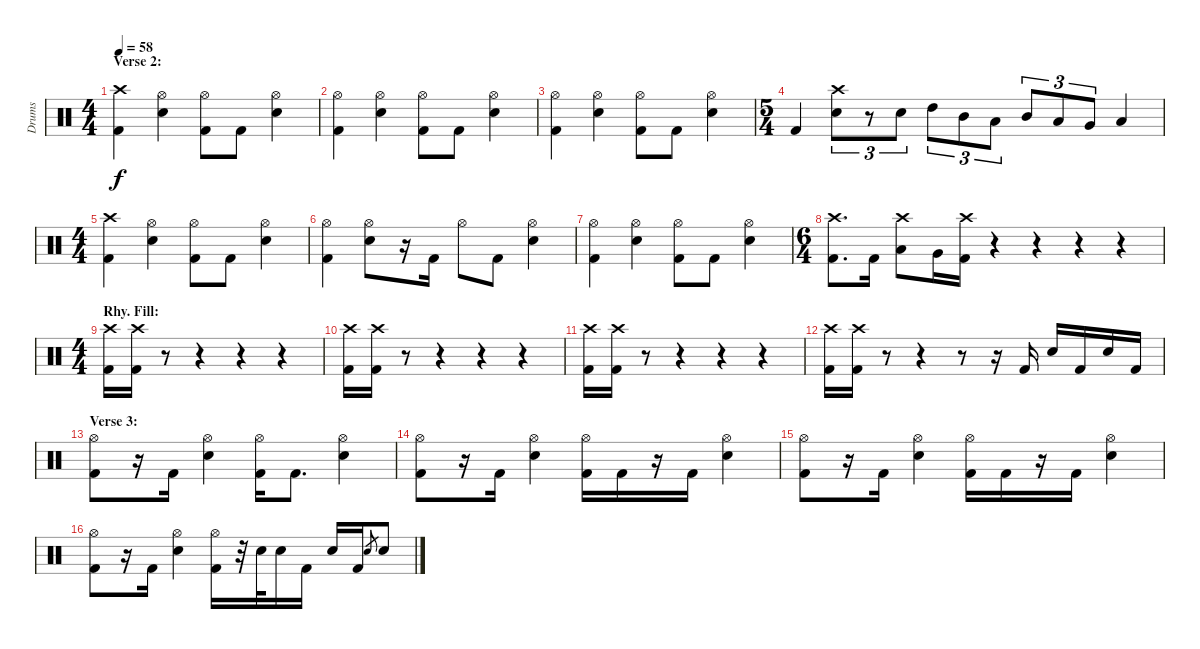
\track ("Drums" "Drums") {instrument percussion}
\staff {score}
\articulation defaults
\ts (4 4)
\section ("" "Verse 2:")
\tempo 58
\clef neutral
\ks c
("Crash high (hit)" "Kick (hit) 2").4{dy f} ("Hi-Hat (open)" "Snare (hit) 2").4 ("Hi-Hat (open)" "Kick (hit) 2").8 "Kick (hit) 2".8 ("Hi-Hat (open)" "Snare (hit) 2").4 |
("Hi-Hat (open)" "Kick (hit) 2").4 ("Hi-Hat (open)" "Snare (hit) 2").4 ("Hi-Hat (open)" "Kick (hit) 2").8 "Kick (hit) 2".8 ("Hi-Hat (open)" "Snare (hit) 2").4 |
("Hi-Hat (open)" "Kick (hit) 2").4 ("Hi-Hat (open)" "Snare (hit) 2").4 ("Hi-Hat (open)" "Kick (hit) 2").8 "Kick (hit) 2".8 ("Hi-Hat (open)" "Snare (hit) 2").4 |
\ts (5 4)
"Kick (hit) 2".4 ("Crash high (hit)" "Snare (hit) 2").8{tu (3 2)} r.8{tu (3 2)} "Snare (hit) 2".8{tu (3 2)} "High Tom (hit)".8{tu (3 2)} "Mid Tom (hit)".8{tu (3 2)} "Low Tom (hit)".8{tu (3 2)} "Mid Tom (hit)".8{tu (3 2)} "Low Tom (hit)".8{tu (3 2)} "Very Low Tom (hit)".8{tu (3 2)} "Low Floor Tom (hit)".4 |
\ts (4 4)
("Crash high (hit)" "Kick (hit) 2").4 ("Hi-Hat (open)" "Snare (hit) 2").4 ("Hi-Hat (open)" "Kick (hit) 2").8 "Kick (hit) 2".8 ("Hi-Hat (open)" "Snare (hit) 2").4 |
("Hi-Hat (open)" "Kick (hit) 2").4 ("Hi-Hat (open)" "Snare (hit) 2").8 r.16 "Kick (hit) 2".16 "Hi-Hat (open)".8 "Kick (hit) 2".8 ("Hi-Hat (open)" "Snare (hit) 2").4 |
("Hi-Hat (open)" "Kick (hit) 2").4 ("Hi-Hat (open)" "Snare (hit) 2").4 ("Hi-Hat (open)" "Kick (hit) 2").8 "Kick (hit) 2".8 ("Hi-Hat (open)" "Snare (hit) 2").4 |
\ts (6 4)
("Crash high (hit)" "Kick (hit) 2").8{d} "Kick (hit) 2".16 ("Crash high (hit)" "Low Tom (hit)").8 "Very Low Tom (hit)".16 ("Crash high (hit)" "Kick (hit) 2").16 r.4 r.4 r.4 r.4 |
\ts (4 4)
\section ("" "Rhy. Fill:")
("Crash high (hit)" "Kick (hit) 2").16 ("Crash high (hit)" "Kick (hit) 2").16 r.8 r.4 r.4 r.4 |
("Crash high (hit)" "Kick (hit) 2").16 ("Crash high (hit)" "Kick (hit) 2").16 r.8 r.4 r.4 r.4 |
("Crash high (hit)" "Kick (hit) 2").16 ("Crash high (hit)" "Kick (hit) 2").16 r.8 r.4 r.4 r.4 |
("Crash high (hit)" "Kick (hit) 2").16 ("Crash high (hit)" "Kick (hit) 2").16 r.8 r.4 r.8 r.16 "Kick (hit) 2".16 "Snare (hit) 2".16 "Kick (hit) 2".16 "Snare (hit) 2".16 "Kick (hit) 2".16 |
\section ("" "Verse 3:")
("Hi-Hat (open)" "Kick (hit) 2").8 r.16 "Kick (hit) 2".16 ("Hi-Hat (open)" "Snare (hit) 2").4 ("Hi-Hat (open)" "Kick (hit) 2").16 "Kick (hit) 2".8{d} ("Hi-Hat (open)" "Snare (hit) 2").4 |
("Hi-Hat (open)" "Kick (hit) 2").8 r.16 "Kick (hit) 2".16 ("Hi-Hat (open)" "Snare (hit) 2").4 ("Hi-Hat (open)" "Kick (hit) 2").16 "Kick (hit) 2".16 r.16 "Kick (hit) 2".16 ("Hi-Hat (open)" "Snare (hit) 2").4 |
("Hi-Hat (open)" "Kick (hit) 2").8 r.16 "Kick (hit) 2".16 ("Hi-Hat (open)" "Snare (hit) 2").4 ("Hi-Hat (open)" "Kick (hit) 2").16 "Kick (hit) 2".16 r.16 "Kick (hit) 2".16 ("Hi-Hat (open)" "Snare (hit) 2").4 |
("Hi-Hat (open)" "Kick (hit) 2").8 r.16 "Kick (hit) 2".16 ("Hi-Hat (open)" "Snare (hit) 2").4 ("Hi-Hat (open)" "Kick (hit) 2").16 r.32 "Snare (hit) 2".32 "Snare (hit) 2".16 "Kick (hit) 2".16 "Snare (hit) 2".16 "Kick (hit) 2".16 "Snare (hit) 2".8{gr} "Snare (hit) 2".8
